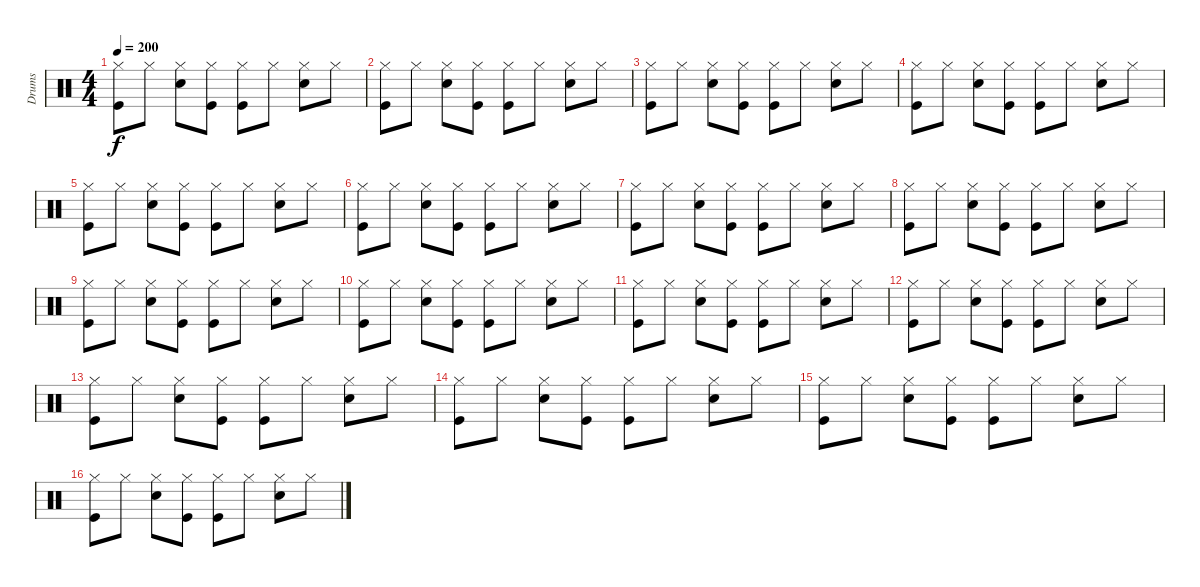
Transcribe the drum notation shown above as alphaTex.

\track ("Drums" "Drums") {instrument percussion}
\staff {score}
\articulation defaults
\ts (4 4)
\tempo 200
\clef neutral
\ks c
("Hi-Hat (closed)" "Kick (hit)").8{dy f} "Hi-Hat (closed)".8 ("Hi-Hat (closed)" "Snare (hit) 2").8 ("Hi-Hat (closed)" "Kick (hit)").8 ("Hi-Hat (closed)" "Kick (hit)").8 "Hi-Hat (closed)".8 ("Hi-Hat (closed)" "Snare (hit) 2").8 "Hi-Hat (closed)".8 |
("Hi-Hat (closed)" "Kick (hit)").8 "Hi-Hat (closed)".8 ("Hi-Hat (closed)" "Snare (hit) 2").8 ("Hi-Hat (closed)" "Kick (hit)").8 ("Hi-Hat (closed)" "Kick (hit)").8 "Hi-Hat (closed)".8 ("Hi-Hat (closed)" "Snare (hit) 2").8 "Hi-Hat (closed)".8 |
("Hi-Hat (closed)" "Kick (hit)").8 "Hi-Hat (closed)".8 ("Hi-Hat (closed)" "Snare (hit) 2").8 ("Hi-Hat (closed)" "Kick (hit)").8 ("Hi-Hat (closed)" "Kick (hit)").8 "Hi-Hat (closed)".8 ("Hi-Hat (closed)" "Snare (hit) 2").8 "Hi-Hat (closed)".8 |
("Hi-Hat (closed)" "Kick (hit)").8 "Hi-Hat (closed)".8 ("Hi-Hat (closed)" "Snare (hit) 2").8 ("Hi-Hat (closed)" "Kick (hit)").8 ("Hi-Hat (closed)" "Kick (hit)").8 "Hi-Hat (closed)".8 ("Hi-Hat (closed)" "Snare (hit) 2").8 "Hi-Hat (closed)".8 |
("Hi-Hat (closed)" "Kick (hit)").8 "Hi-Hat (closed)".8 ("Hi-Hat (closed)" "Snare (hit) 2").8 ("Hi-Hat (closed)" "Kick (hit)").8 ("Hi-Hat (closed)" "Kick (hit)").8 "Hi-Hat (closed)".8 ("Hi-Hat (closed)" "Snare (hit) 2").8 "Hi-Hat (closed)".8 |
("Hi-Hat (closed)" "Kick (hit)").8 "Hi-Hat (closed)".8 ("Hi-Hat (closed)" "Snare (hit) 2").8 ("Hi-Hat (closed)" "Kick (hit)").8 ("Hi-Hat (closed)" "Kick (hit)").8 "Hi-Hat (closed)".8 ("Hi-Hat (closed)" "Snare (hit) 2").8 "Hi-Hat (closed)".8 |
("Hi-Hat (closed)" "Kick (hit)").8 "Hi-Hat (closed)".8 ("Hi-Hat (closed)" "Snare (hit) 2").8 ("Hi-Hat (closed)" "Kick (hit)").8 ("Hi-Hat (closed)" "Kick (hit)").8 "Hi-Hat (closed)".8 ("Hi-Hat (closed)" "Snare (hit) 2").8 "Hi-Hat (closed)".8 |
("Hi-Hat (closed)" "Kick (hit)").8 "Hi-Hat (closed)".8 ("Hi-Hat (closed)" "Snare (hit) 2").8 ("Hi-Hat (closed)" "Kick (hit)").8 ("Hi-Hat (closed)" "Kick (hit)").8 "Hi-Hat (closed)".8 ("Hi-Hat (closed)" "Snare (hit) 2").8 "Hi-Hat (closed)".8 |
("Hi-Hat (closed)" "Kick (hit)").8 "Hi-Hat (closed)".8 ("Hi-Hat (closed)" "Snare (hit) 2").8 ("Hi-Hat (closed)" "Kick (hit)").8 ("Hi-Hat (closed)" "Kick (hit)").8 "Hi-Hat (closed)".8 ("Hi-Hat (closed)" "Snare (hit) 2").8 "Hi-Hat (closed)".8 |
("Hi-Hat (closed)" "Kick (hit)").8 "Hi-Hat (closed)".8 ("Hi-Hat (closed)" "Snare (hit) 2").8 ("Hi-Hat (closed)" "Kick (hit)").8 ("Hi-Hat (closed)" "Kick (hit)").8 "Hi-Hat (closed)".8 ("Hi-Hat (closed)" "Snare (hit) 2").8 "Hi-Hat (closed)".8 |
("Hi-Hat (closed)" "Kick (hit)").8 "Hi-Hat (closed)".8 ("Hi-Hat (closed)" "Snare (hit) 2").8 ("Hi-Hat (closed)" "Kick (hit)").8 ("Hi-Hat (closed)" "Kick (hit)").8 "Hi-Hat (closed)".8 ("Hi-Hat (closed)" "Snare (hit) 2").8 "Hi-Hat (closed)".8 |
("Hi-Hat (closed)" "Kick (hit)").8 "Hi-Hat (closed)".8 ("Hi-Hat (closed)" "Snare (hit) 2").8 ("Hi-Hat (closed)" "Kick (hit)").8 ("Hi-Hat (closed)" "Kick (hit)").8 "Hi-Hat (closed)".8 ("Hi-Hat (closed)" "Snare (hit) 2").8 "Hi-Hat (closed)".8 |
("Hi-Hat (closed)" "Kick (hit)").8 "Hi-Hat (closed)".8 ("Hi-Hat (closed)" "Snare (hit) 2").8 ("Hi-Hat (closed)" "Kick (hit)").8 ("Hi-Hat (closed)" "Kick (hit)").8 "Hi-Hat (closed)".8 ("Hi-Hat (closed)" "Snare (hit) 2").8 "Hi-Hat (closed)".8 |
("Hi-Hat (closed)" "Kick (hit)").8 "Hi-Hat (closed)".8 ("Hi-Hat (closed)" "Snare (hit) 2").8 ("Hi-Hat (closed)" "Kick (hit)").8 ("Hi-Hat (closed)" "Kick (hit)").8 "Hi-Hat (closed)".8 ("Hi-Hat (closed)" "Snare (hit) 2").8 "Hi-Hat (closed)".8 |
("Hi-Hat (closed)" "Kick (hit)").8 "Hi-Hat (closed)".8 ("Hi-Hat (closed)" "Snare (hit) 2").8 ("Hi-Hat (closed)" "Kick (hit)").8 ("Hi-Hat (closed)" "Kick (hit)").8 "Hi-Hat (closed)".8 ("Hi-Hat (closed)" "Snare (hit) 2").8 "Hi-Hat (closed)".8 |
("Hi-Hat (closed)" "Kick (hit)").8 "Hi-Hat (closed)".8 ("Hi-Hat (closed)" "Snare (hit) 2").8 ("Hi-Hat (closed)" "Kick (hit)").8 ("Hi-Hat (closed)" "Kick (hit)").8 "Hi-Hat (closed)".8 ("Hi-Hat (closed)" "Snare (hit) 2").8 "Hi-Hat (closed)".8
